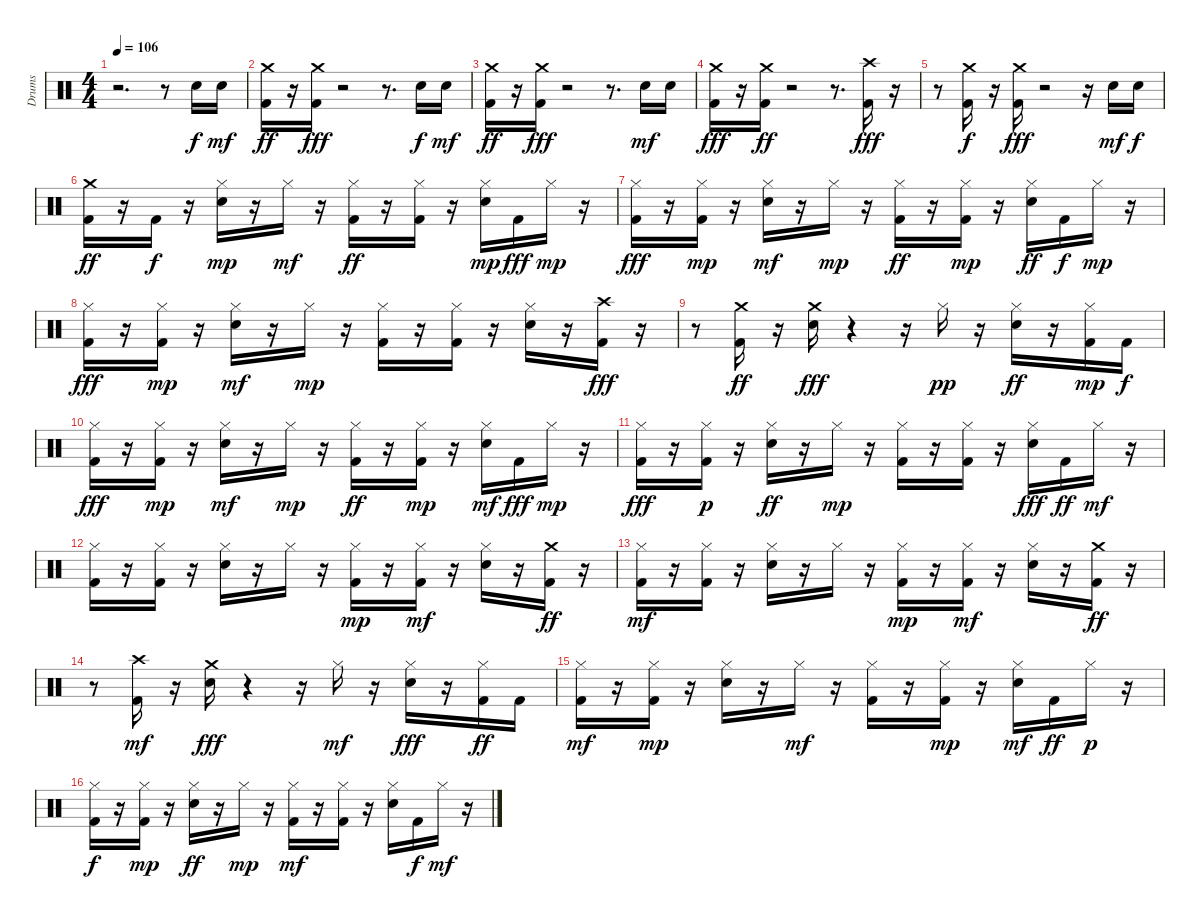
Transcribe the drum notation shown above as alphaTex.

\track ("Drums" "Drums") {instrument percussion}
\staff {score}
\articulation defaults
\ts (4 4)
\tempo 106
\clef neutral
\ks c
r.2{d dy f} r.8 "Snare (hit) 2".16 "Snare (hit) 2".16{dy mf} |
("Kick (hit) 2" "Crash medium (hit)").16{dy ff} r.16 ("Crash medium (hit)" "Kick (hit) 2").16{dy fff} r.2 r.8{d} "Snare (hit) 2".16{dy f} "Snare (hit) 2".16{dy mf} |
("Crash medium (hit)" "Kick (hit) 2").16{dy ff} r.16 ("Crash medium (hit)" "Kick (hit) 2").16{dy fff} r.2 r.8{d} "Snare (hit) 2".16{dy mf} "Snare (hit) 2".16 |
("Kick (hit) 2" "Crash medium (hit)").16{dy fff} r.16 ("Kick (hit) 2" "Crash medium (hit)").16{dy ff} r.2 r.8{d} ("Crash high (hit)" "Kick (hit) 2").16{dy fff} r.16 |
r.8 ("Crash medium (hit)" "Kick (hit) 2").16{dy f} r.16 ("Kick (hit) 2" "Crash medium (hit)").16{dy fff} r.2 r.16 "Snare (hit) 2".16{dy mf} "Snare (hit) 2".16{dy f} |
("Kick (hit) 2" "Crash medium (hit)").16{dy ff} r.16 "Kick (hit) 2".16{dy f} r.16 ("Snare (hit) 2" "Hi-Hat (closed)").16{dy mp} r.16 "Hi-Hat (closed)".16{dy mf} r.16 ("Hi-Hat (closed)" "Kick (hit) 2").16{dy ff} r.16 ("Hi-Hat (closed)" "Kick (hit) 2").16 r.16 ("Snare (hit) 2" "Hi-Hat (closed)").16{dy mp} "Kick (hit) 2".16{dy fff} "Hi-Hat (closed)".16{dy mp} r.16 |
("Kick (hit) 2" "Hi-Hat (closed)").16{dy fff} r.16 ("Kick (hit) 2" "Hi-Hat (closed)").16{dy mp} r.16 ("Snare (hit) 2" "Hi-Hat (closed)").16{dy mf} r.16 "Hi-Hat (closed)".16{dy mp} r.16 ("Hi-Hat (closed)" "Kick (hit) 2").16{dy ff} r.16 ("Hi-Hat (closed)" "Kick (hit) 2").16{dy mp} r.16 ("Snare (hit) 2" "Hi-Hat (closed)").16{dy ff} "Kick (hit) 2".16{dy f} "Hi-Hat (closed)".16{dy mp} r.16 |
("Kick (hit) 2" "Hi-Hat (closed)").16{dy fff} r.16 ("Kick (hit) 2" "Hi-Hat (closed)").16{dy mp} r.16 ("Snare (hit) 2" "Hi-Hat (closed)").16{dy mf} r.16 "Hi-Hat (closed)".16{dy mp} r.16 ("Kick (hit) 2" "Hi-Hat (closed)").16 r.16 ("Kick (hit) 2" "Hi-Hat (closed)").16 r.16 ("Snare (hit) 2" "Hi-Hat (closed)").16 r.16 ("Kick (hit) 2" "Crash high (hit)").16{dy fff} r.16 |
r.8 ("Kick (hit) 2" "Crash medium (hit)").16{dy ff} r.16 ("Crash medium (hit)" "Snare (hit) 2").16{dy fff} r.4 r.16 "Hi-Hat (closed)".16{dy pp} r.16 ("Snare (hit) 2" "Hi-Hat (closed)").16{dy ff} r.16 ("Kick (hit) 2" "Hi-Hat (closed)").16{dy mp} "Kick (hit) 2".16{dy f} |
("Kick (hit) 2" "Hi-Hat (closed)").16{dy fff} r.16 ("Kick (hit) 2" "Hi-Hat (closed)").16{dy mp} r.16 ("Snare (hit) 2" "Hi-Hat (closed)").16{dy mf} r.16 "Hi-Hat (closed)".16{dy mp} r.16 ("Hi-Hat (closed)" "Kick (hit) 2").16{dy ff} r.16 ("Kick (hit) 2" "Hi-Hat (closed)").16{dy mp} r.16 ("Snare (hit) 2" "Hi-Hat (closed)").16{dy mf} "Kick (hit) 2".16{dy fff} "Hi-Hat (closed)".16{dy mp} r.16 |
("Hi-Hat (closed)" "Kick (hit) 2").16{dy fff} r.16 ("Hi-Hat (closed)" "Kick (hit) 2").16{dy p} r.16 ("Hi-Hat (closed)" "Snare (hit) 2").16{dy ff} r.16 "Hi-Hat (closed)".16{dy mp} r.16 ("Kick (hit) 2" "Hi-Hat (closed)").16 r.16 ("Kick (hit) 2" "Hi-Hat (closed)").16 r.16 ("Snare (hit) 2" "Hi-Hat (closed)").16{dy fff} "Kick (hit) 2".16{dy ff} "Hi-Hat (closed)".16{dy mf} r.16 |
("Kick (hit) 2" "Hi-Hat (closed)").16 r.16 ("Kick (hit) 2" "Hi-Hat (closed)").16 r.16 ("Snare (hit) 2" "Hi-Hat (closed)").16 r.16 "Hi-Hat (closed)".16 r.16 ("Hi-Hat (closed)" "Kick (hit) 2").16{dy mp} r.16 ("Hi-Hat (closed)" "Kick (hit) 2").16{dy mf} r.16 ("Snare (hit) 2" "Hi-Hat (closed)").16 r.16 ("Kick (hit) 2" "Crash medium (hit)").16{dy ff} r.16 |
("Kick (hit) 2" "Hi-Hat (closed)").16{dy mf} r.16 ("Kick (hit) 2" "Hi-Hat (closed)").16 r.16 ("Snare (hit) 2" "Hi-Hat (closed)").16 r.16 "Hi-Hat (closed)".16 r.16 ("Hi-Hat (closed)" "Kick (hit) 2").16{dy mp} r.16 ("Hi-Hat (closed)" "Kick (hit) 2").16{dy mf} r.16 ("Snare (hit) 2" "Hi-Hat (closed)").16 r.16 ("Kick (hit) 2" "Crash medium (hit)").16{dy ff} r.16 |
r.8 ("Kick (hit) 2" "Crash high (hit)").16{dy mf} r.16 ("Crash medium (hit)" "Snare (hit) 2").16{dy fff} r.4 r.16 "Hi-Hat (closed)".16{dy mf} r.16 ("Snare (hit) 2" "Hi-Hat (closed)").16{dy fff} r.16 ("Kick (hit) 2" "Hi-Hat (closed)").16{dy ff} "Kick (hit) 2".16 |
("Kick (hit) 2" "Hi-Hat (closed)").16{dy mf} r.16 ("Kick (hit) 2" "Hi-Hat (closed)").16{dy mp} r.16 ("Snare (hit) 2" "Hi-Hat (closed)").16 r.16 "Hi-Hat (closed)".16{dy mf} r.16 ("Hi-Hat (closed)" "Kick (hit) 2").16 r.16 ("Hi-Hat (closed)" "Kick (hit) 2").16{dy mp} r.16 ("Hi-Hat (closed)" "Snare (hit) 2").16{dy mf} "Kick (hit) 2".16{dy ff} "Hi-Hat (closed)".16{dy p} r.16 |
("Hi-Hat (closed)" "Kick (hit) 2").16{dy f} r.16 ("Kick (hit) 2" "Hi-Hat (closed)").16{dy mp} r.16 ("Snare (hit) 2" "Hi-Hat (closed)").16{dy ff} r.16 "Hi-Hat (closed)".16{dy mp} r.16 ("Kick (hit) 2" "Hi-Hat (closed)").16{dy mf} r.16 ("Kick (hit) 2" "Hi-Hat (closed)").16 r.16 ("Snare (hit) 2" "Hi-Hat (closed)").16 "Kick (hit) 2".16{dy f} "Hi-Hat (closed)".16{dy mf} r.16
